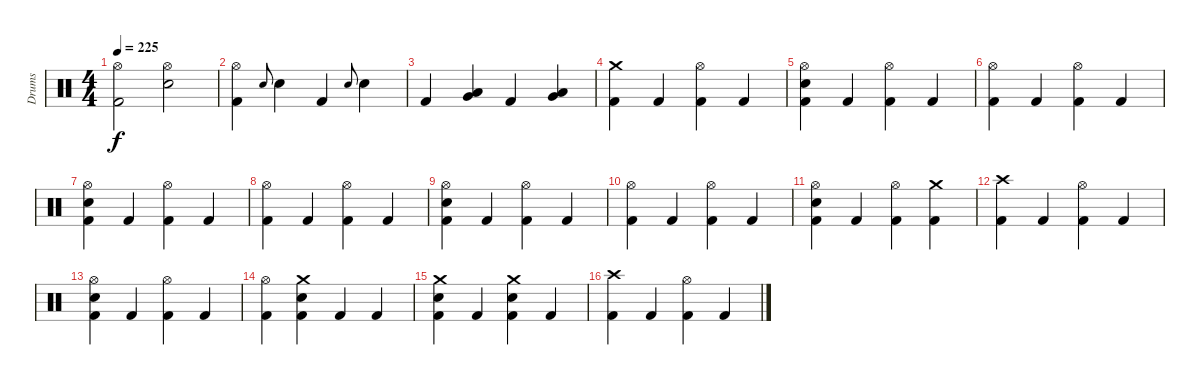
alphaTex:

\track ("Drums" "Drums") {instrument percussion}
\staff {score}
\articulation defaults
\ts (4 4)
\tempo 225
\clef neutral
\ks c
("Hi-Hat (open)" "Kick (hit) 2").2{dy f} ("Hi-Hat (open)" "Electric Snare (hit)").2 |
("Kick (hit) 2" "Hi-Hat (open)").4 "Electric Snare (hit)".8{gr onbeat} "Electric Snare (hit)".4 "Kick (hit) 2".4 "Electric Snare (hit)".8{gr onbeat} "Electric Snare (hit)".4 |
"Kick (hit) 2".4 ("Very Low Tom (hit)" "Low Tom (hit)").4 "Kick (hit) 2".4 ("Low Floor Tom (hit)" "Very Low Tom (hit)").4 |
("Crash medium (hit)" "Kick (hit) 2").4 "Kick (hit) 2".4 ("Hi-Hat (open)" "Kick (hit) 2").4 "Kick (hit) 2".4 |
("Hi-Hat (open)" "Electric Snare (hit)" "Kick (hit) 2").4 "Kick (hit) 2".4 ("Hi-Hat (open)" "Kick (hit) 2").4 "Kick (hit) 2".4 |
("Hi-Hat (open)" "Kick (hit) 2").4 "Kick (hit) 2".4 ("Hi-Hat (open)" "Kick (hit) 2").4 "Kick (hit) 2".4 |
("Hi-Hat (open)" "Electric Snare (hit)" "Kick (hit) 2").4 "Kick (hit) 2".4 ("Hi-Hat (open)" "Kick (hit) 2").4 "Kick (hit) 2".4 |
("Hi-Hat (open)" "Kick (hit) 2").4 "Kick (hit) 2".4 ("Hi-Hat (open)" "Kick (hit) 2").4 "Kick (hit) 2".4 |
("Hi-Hat (open)" "Electric Snare (hit)" "Kick (hit) 2").4 "Kick (hit) 2".4 ("Hi-Hat (open)" "Kick (hit) 2").4 "Kick (hit) 2".4 |
("Hi-Hat (open)" "Kick (hit) 2").4 "Kick (hit) 2".4 ("Hi-Hat (open)" "Kick (hit) 2").4 "Kick (hit) 2".4 |
("Hi-Hat (open)" "Electric Snare (hit)" "Kick (hit) 2").4 "Kick (hit) 2".4 ("Hi-Hat (open)" "Kick (hit) 2").4 ("Crash medium (hit)" "Kick (hit) 2").4 |
("Crash high (hit)" "Kick (hit) 2").4 "Kick (hit) 2".4 ("Hi-Hat (open)" "Kick (hit) 2").4 "Kick (hit) 2".4 |
("Hi-Hat (open)" "Electric Snare (hit)" "Kick (hit) 2").4 "Kick (hit) 2".4 ("Hi-Hat (open)" "Kick (hit) 2").4 "Kick (hit) 2".4 |
("Hi-Hat (open)" "Kick (hit) 2").4 ("Crash medium (hit)" "Electric Snare (hit)" "Kick (hit) 2").4 "Kick (hit) 2".4 "Kick (hit) 2".4 |
("Crash medium (hit)" "Electric Snare (hit)" "Kick (hit) 2").4 "Kick (hit) 2".4 ("Crash medium (hit)" "Electric Snare (hit)" "Kick (hit) 2").4 "Kick (hit) 2".4 |
("Crash high (hit)" "Kick (hit) 2").4 "Kick (hit) 2".4 ("Hi-Hat (open)" "Kick (hit) 2").4 "Kick (hit) 2".4
